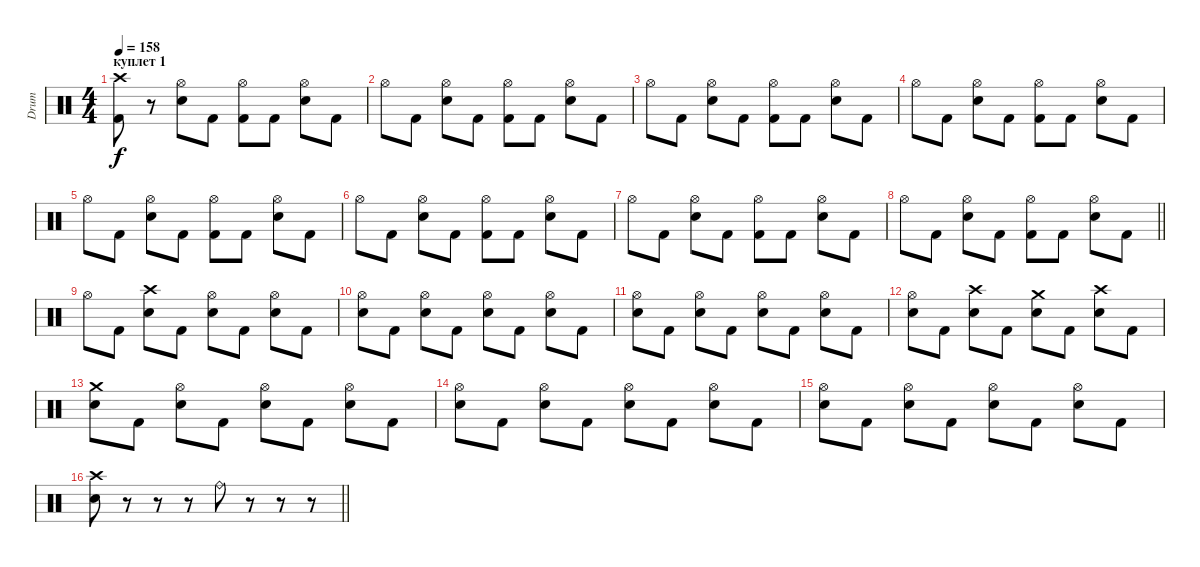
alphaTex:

\track ("Drum" "Drum") {instrument percussion}
\staff {score}
\articulation defaults
\ts (4 4)
\section ("" "куплет 1")
\tempo 158
\clef neutral
\ks c
("Crash high (hit)" "Kick (hit) 2").8{dy f} r.8 ("Hi-Hat (open)" "Electric Snare (hit)").8 "Kick (hit) 2".8 ("Hi-Hat (open)" "Kick (hit) 2").8 "Kick (hit) 2".8 ("Hi-Hat (open)" "Electric Snare (hit)").8 "Kick (hit) 2".8 |
"Hi-Hat (open)".8 "Kick (hit) 2".8 ("Hi-Hat (open)" "Electric Snare (hit)").8 "Kick (hit) 2".8 ("Hi-Hat (open)" "Kick (hit) 2").8 "Kick (hit) 2".8 ("Hi-Hat (open)" "Electric Snare (hit)").8 "Kick (hit) 2".8 |
"Hi-Hat (open)".8 "Kick (hit) 2".8 ("Hi-Hat (open)" "Electric Snare (hit)").8 "Kick (hit) 2".8 ("Hi-Hat (open)" "Kick (hit) 2").8 "Kick (hit) 2".8 ("Hi-Hat (open)" "Electric Snare (hit)").8 "Kick (hit) 2".8 |
"Hi-Hat (open)".8 "Kick (hit) 2".8 ("Hi-Hat (open)" "Electric Snare (hit)").8 "Kick (hit) 2".8 ("Hi-Hat (open)" "Kick (hit) 2").8 "Kick (hit) 2".8 ("Hi-Hat (open)" "Electric Snare (hit)").8 "Kick (hit) 2".8 |
"Hi-Hat (open)".8 "Kick (hit) 2".8 ("Hi-Hat (open)" "Electric Snare (hit)").8 "Kick (hit) 2".8 ("Hi-Hat (open)" "Kick (hit) 2").8 "Kick (hit) 2".8 ("Hi-Hat (open)" "Electric Snare (hit)").8 "Kick (hit) 2".8 |
"Hi-Hat (open)".8 "Kick (hit) 2".8 ("Hi-Hat (open)" "Electric Snare (hit)").8 "Kick (hit) 2".8 ("Hi-Hat (open)" "Kick (hit) 2").8 "Kick (hit) 2".8 ("Hi-Hat (open)" "Electric Snare (hit)").8 "Kick (hit) 2".8 |
"Hi-Hat (open)".8 "Kick (hit) 2".8 ("Hi-Hat (open)" "Electric Snare (hit)").8 "Kick (hit) 2".8 ("Hi-Hat (open)" "Kick (hit) 2").8 "Kick (hit) 2".8 ("Hi-Hat (open)" "Electric Snare (hit)").8 "Kick (hit) 2".8 |
\barLineRight lightlight "Hi-Hat (open)".8 "Kick (hit) 2".8
("Hi-Hat (open)" "Electric Snare (hit)").8 "Kick (hit) 2".8 ("Hi-Hat (open)" "Kick (hit) 2").8 "Kick (hit) 2".8 ("Hi-Hat (open)" "Electric Snare (hit)").8 "Kick (hit) 2".8 |
\section ("" "")
"Hi-Hat (open)".8 "Kick (hit) 2".8 ("Crash high (hit)" "Electric Snare (hit)").8 "Kick (hit) 2".8 ("Hi-Hat (open)" "Electric Snare (hit)").8 "Kick (hit) 2".8 ("Hi-Hat (open)" "Electric Snare (hit)").8 "Kick (hit) 2".8 |
("Hi-Hat (open)" "Electric Snare (hit)").8 "Kick (hit) 2".8 ("Hi-Hat (open)" "Electric Snare (hit)").8 "Kick (hit) 2".8 ("Hi-Hat (open)" "Electric Snare (hit)").8 "Kick (hit) 2".8 ("Hi-Hat (open)" "Electric Snare (hit)").8 "Kick (hit) 2".8 |
("Hi-Hat (open)" "Electric Snare (hit)").8 "Kick (hit) 2".8 ("Hi-Hat (open)" "Electric Snare (hit)").8 "Kick (hit) 2".8 ("Hi-Hat (open)" "Electric Snare (hit)").8 "Kick (hit) 2".8 ("Hi-Hat (open)" "Electric Snare (hit)").8 "Kick (hit) 2".8 |
("Hi-Hat (open)" "Electric Snare (hit)").8 "Kick (hit) 2".8 ("Crash high (hit)" "Electric Snare (hit)").8 "Kick (hit) 2".8 ("Crash medium (hit)" "Electric Snare (hit)").8 "Kick (hit) 2".8 ("Crash high (hit)" "Electric Snare (hit)").8 "Kick (hit) 2".8 |
("Crash medium (hit)" "Electric Snare (hit)").8 "Kick (hit) 2".8 ("Hi-Hat (open)" "Electric Snare (hit)").8 "Kick (hit) 2".8 ("Hi-Hat (open)" "Electric Snare (hit)").8 "Kick (hit) 2".8 ("Hi-Hat (open)" "Electric Snare (hit)").8 "Kick (hit) 2".8 |
("Hi-Hat (open)" "Electric Snare (hit)").8 "Kick (hit) 2".8 ("Hi-Hat (open)" "Electric Snare (hit)").8 "Kick (hit) 2".8 ("Hi-Hat (open)" "Electric Snare (hit)").8 "Kick (hit) 2".8 ("Hi-Hat (open)" "Electric Snare (hit)").8 "Kick (hit) 2".8 |
("Hi-Hat (open)" "Electric Snare (hit)").8 "Kick (hit) 2".8 ("Hi-Hat (open)" "Electric Snare (hit)").8 "Kick (hit) 2".8 ("Hi-Hat (open)" "Electric Snare (hit)").8 "Kick (hit) 2".8 ("Hi-Hat (open)" "Electric Snare (hit)").8 "Kick (hit) 2".8 |
\barLineRight lightlight
("Crash high (hit)" "Electric Snare (hit)").8 r.8 r.8 r.8 "Ride (bell)".8 r.8 r.8 r.8
